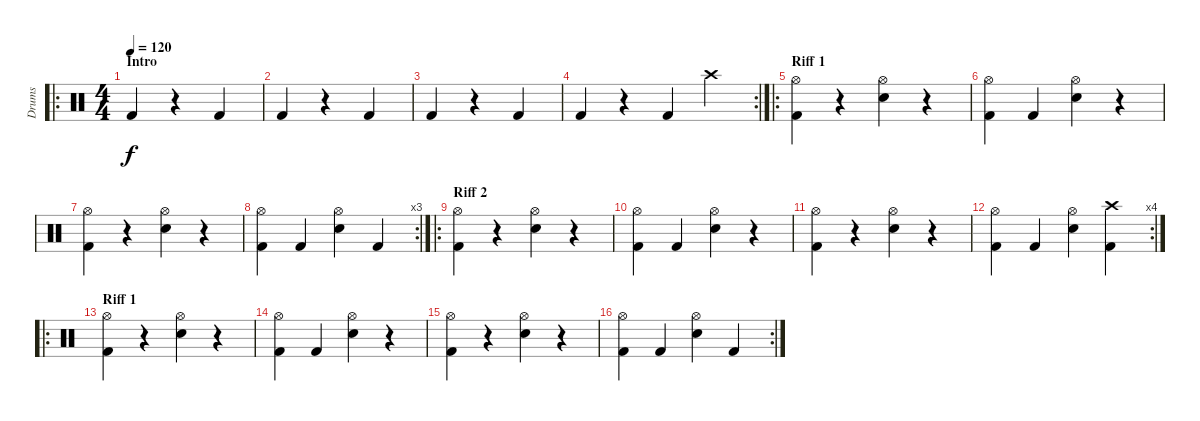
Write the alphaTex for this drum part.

\track ("Drums" "Drums") {instrument percussion}
\staff {score}
\articulation defaults
\ro
\ts (4 4)
\section ("" "Intro")
\tempo 120
\clef neutral
\ks c "Kick (hit) 2".4{dy f}
r.4 "Kick (hit) 2".4 |
"Kick (hit) 2".4 r.4 "Kick (hit) 2".4 |
"Kick (hit) 2".4 r.4 "Kick (hit) 2".4 |
\rc 2 "Kick (hit) 2".4
r.4 "Kick (hit) 2".4 "Crash high (hit)".4 |
\ro
\section ("" "Riff 1")
("Hi-Hat (open)" "Kick (hit) 2").4 r.4 ("Hi-Hat (open)" "Snare (hit) 2").4 r.4 |
("Hi-Hat (open)" "Kick (hit) 2").4 "Kick (hit) 2".4 ("Hi-Hat (open)" "Snare (hit) 2").4 r.4 |
("Hi-Hat (open)" "Kick (hit) 2").4 r.4 ("Hi-Hat (open)" "Snare (hit) 2").4 r.4 |
\rc 3
("Hi-Hat (open)" "Kick (hit) 2").4 "Kick (hit) 2".4 ("Hi-Hat (open)" "Snare (hit) 2").4 "Kick (hit) 2".4 |
\ro
\section ("" "Riff 2")
("Hi-Hat (open)" "Kick (hit) 2").4 r.4 ("Hi-Hat (open)" "Snare (hit) 2").4 r.4 |
("Hi-Hat (open)" "Kick (hit) 2").4 "Kick (hit) 2".4 ("Hi-Hat (open)" "Snare (hit) 2").4 r.4 |
("Hi-Hat (open)" "Kick (hit) 2").4 r.4 ("Hi-Hat (open)" "Snare (hit) 2").4 r.4 |
\rc 4
("Hi-Hat (open)" "Kick (hit) 2").4 "Kick (hit) 2".4 ("Hi-Hat (open)" "Snare (hit) 2").4 ("Crash high (hit)" "Kick (hit) 2").4 |
\ro
\section ("" "Riff 1")
("Hi-Hat (open)" "Kick (hit) 2").4 r.4 ("Hi-Hat (open)" "Snare (hit) 2").4 r.4 |
("Hi-Hat (open)" "Kick (hit) 2").4 "Kick (hit) 2".4 ("Hi-Hat (open)" "Snare (hit) 2").4 r.4 |
("Hi-Hat (open)" "Kick (hit) 2").4 r.4 ("Hi-Hat (open)" "Snare (hit) 2").4 r.4 |
\rc 2
("Hi-Hat (open)" "Kick (hit) 2").4 "Kick (hit) 2".4 ("Hi-Hat (open)" "Snare (hit) 2").4 "Kick (hit) 2".4
